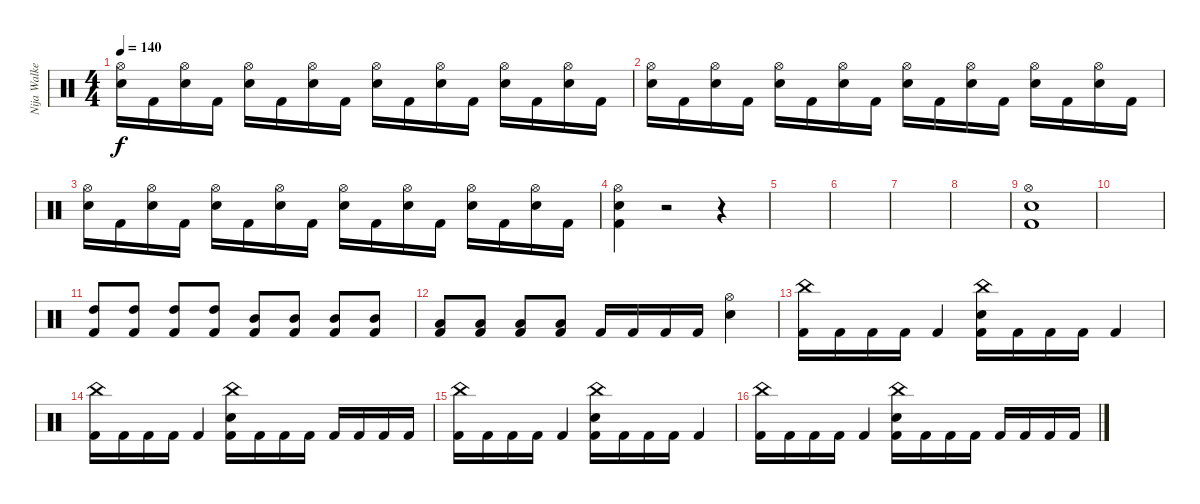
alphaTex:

\track ("Nija Walker" "Nija Walke") {instrument percussion bank 151}
\staff {score}
\articulation defaults
\ts (4 4)
\tempo 140
\clef neutral
\ks c
("Hi-Hat (open)" "Electric Snare (hit)").16{dy f} "Kick (hit) 2".16 ("Hi-Hat (open)" "Electric Snare (hit)").16 "Kick (hit) 2".16 ("Hi-Hat (open)" "Electric Snare (hit)").16 "Kick (hit) 2".16 ("Hi-Hat (open)" "Electric Snare (hit)").16 "Kick (hit) 2".16 ("Hi-Hat (open)" "Electric Snare (hit)").16 "Kick (hit) 2".16 ("Hi-Hat (open)" "Electric Snare (hit)").16 "Kick (hit) 2".16 ("Hi-Hat (open)" "Electric Snare (hit)").16 "Kick (hit) 2".16 ("Hi-Hat (open)" "Electric Snare (hit)").16 "Kick (hit) 2".16 |
("Hi-Hat (open)" "Electric Snare (hit)").16 "Kick (hit) 2".16 ("Hi-Hat (open)" "Electric Snare (hit)").16 "Kick (hit) 2".16 ("Hi-Hat (open)" "Electric Snare (hit)").16 "Kick (hit) 2".16 ("Hi-Hat (open)" "Electric Snare (hit)").16 "Kick (hit) 2".16 ("Hi-Hat (open)" "Electric Snare (hit)").16 "Kick (hit) 2".16 ("Hi-Hat (open)" "Electric Snare (hit)").16 "Kick (hit) 2".16 ("Hi-Hat (open)" "Electric Snare (hit)").16 "Kick (hit) 2".16 ("Hi-Hat (open)" "Electric Snare (hit)").16 "Kick (hit) 2".16 |
("Hi-Hat (open)" "Electric Snare (hit)").16 "Kick (hit) 2".16 ("Hi-Hat (open)" "Electric Snare (hit)").16 "Kick (hit) 2".16 ("Hi-Hat (open)" "Electric Snare (hit)").16 "Kick (hit) 2".16 ("Hi-Hat (open)" "Electric Snare (hit)").16 "Kick (hit) 2".16 ("Hi-Hat (open)" "Electric Snare (hit)").16 "Kick (hit) 2".16 ("Hi-Hat (open)" "Electric Snare (hit)").16 "Kick (hit) 2".16 ("Hi-Hat (open)" "Electric Snare (hit)").16 "Kick (hit) 2".16 ("Hi-Hat (open)" "Electric Snare (hit)").16 "Kick (hit) 2".16 |
("Hi-Hat (open)" "Electric Snare (hit)" "Kick (hit) 2").4 r.2 r.4 |
|
|
|
|
("Hi-Hat (open)" "Electric Snare (hit)" "Kick (hit) 2").1 |
|
("High Tom (hit)" "Kick (hit) 2").8 ("High Tom (hit)" "Kick (hit) 2").8 ("High Tom (hit)" "Kick (hit) 2").8 ("High Tom (hit)" "Kick (hit) 2").8 ("Mid Tom (hit)" "Kick (hit) 2").8 ("Mid Tom (hit)" "Kick (hit) 2").8 ("Mid Tom (hit)" "Kick (hit) 2").8 ("Mid Tom (hit)" "Kick (hit) 2").8 |
("Low Tom (hit)" "Kick (hit) 2").8 ("Low Tom (hit)" "Kick (hit) 2").8 ("Low Tom (hit)" "Kick (hit) 2").8 ("Low Tom (hit)" "Kick (hit) 2").8 "Kick (hit) 2".16 "Kick (hit) 2".16 "Kick (hit) 2".16 "Kick (hit) 2".16 ("Hi-Hat (open)" "Electric Snare (hit)").4 |
("China (hit)" "Kick (hit) 2").16 "Kick (hit) 2".16 "Kick (hit) 2".16 "Kick (hit) 2".16 "Kick (hit) 2".4 ("China (hit)" "Electric Snare (hit)" "Kick (hit) 2").16 "Kick (hit) 2".16 "Kick (hit) 2".16 "Kick (hit) 2".16 "Kick (hit) 2".4 |
("China (hit)" "Kick (hit) 2").16 "Kick (hit) 2".16 "Kick (hit) 2".16 "Kick (hit) 2".16 "Kick (hit) 2".4 ("China (hit)" "Electric Snare (hit)" "Kick (hit) 2").16 "Kick (hit) 2".16 "Kick (hit) 2".16 "Kick (hit) 2".16 "Kick (hit) 2".16 "Kick (hit) 2".16 "Kick (hit) 2".16 "Kick (hit) 2".16 |
("China (hit)" "Kick (hit) 2").16 "Kick (hit) 2".16 "Kick (hit) 2".16 "Kick (hit) 2".16 "Kick (hit) 2".4 ("China (hit)" "Electric Snare (hit)" "Kick (hit) 2").16 "Kick (hit) 2".16 "Kick (hit) 2".16 "Kick (hit) 2".16 "Kick (hit) 2".4 |
("China (hit)" "Kick (hit) 2").16 "Kick (hit) 2".16 "Kick (hit) 2".16 "Kick (hit) 2".16 "Kick (hit) 2".4 ("China (hit)" "Electric Snare (hit)" "Kick (hit) 2").16 "Kick (hit) 2".16 "Kick (hit) 2".16 "Kick (hit) 2".16 "Kick (hit) 2".16 "Kick (hit) 2".16 "Kick (hit) 2".16 "Kick (hit) 2".16
